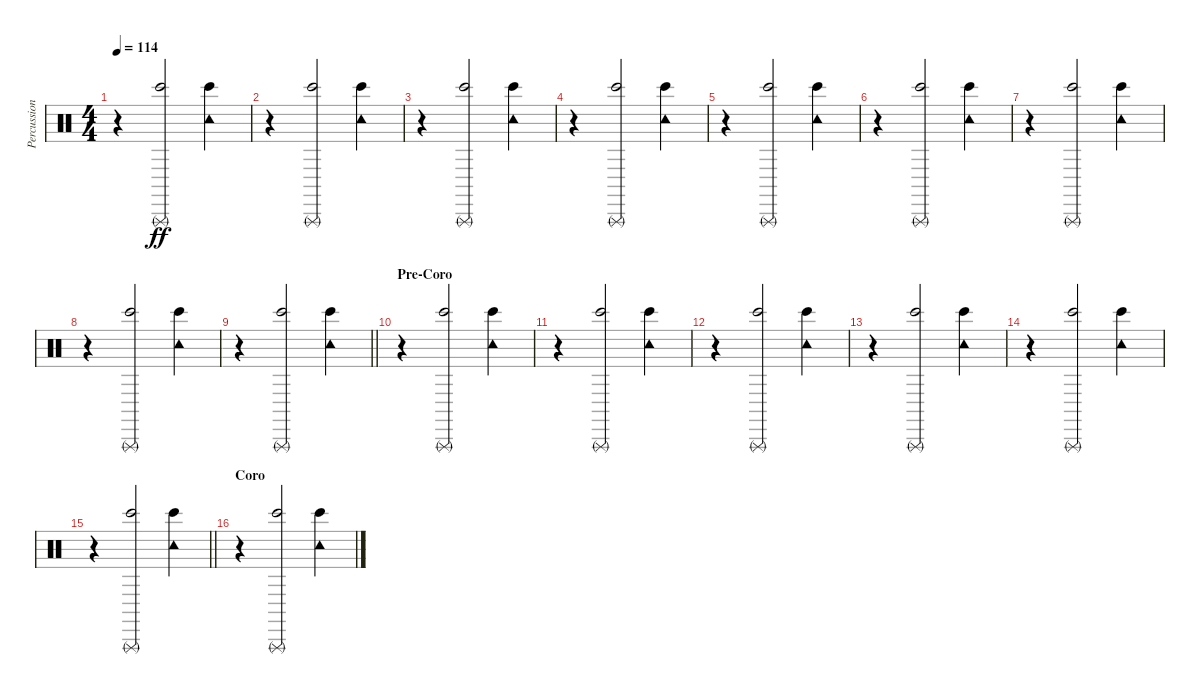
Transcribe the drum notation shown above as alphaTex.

\track ("Percussion" "Percussion") {instrument percussion}
\staff {score}
\articulation defaults
\ts (4 4)
\tempo 114
\clef neutral
\ks c
r.4{dy ff} ("Triangle (rnute)" "Bongo High (hit)").2 ("Tambourine (hit)" "Bongo High (hit)").4 |
r.4 ("Triangle (rnute)" "Bongo High (hit)").2 ("Tambourine (hit)" "Bongo High (hit)").4 |
r.4 ("Triangle (rnute)" "Bongo High (hit)").2 ("Tambourine (hit)" "Bongo High (hit)").4 |
r.4 ("Triangle (rnute)" "Bongo High (hit)").2 ("Tambourine (hit)" "Bongo High (hit)").4 |
r.4 ("Triangle (rnute)" "Bongo High (hit)").2 ("Tambourine (hit)" "Bongo High (hit)").4 |
r.4 ("Triangle (rnute)" "Bongo High (hit)").2 ("Tambourine (hit)" "Bongo High (hit)").4 |
r.4 ("Triangle (rnute)" "Bongo High (hit)").2 ("Tambourine (hit)" "Bongo High (hit)").4 |
r.4 ("Triangle (rnute)" "Bongo High (hit)").2 ("Tambourine (hit)" "Bongo High (hit)").4 |
\barLineRight lightlight
r.4 ("Triangle (rnute)" "Bongo High (hit)").2 ("Tambourine (hit)" "Bongo High (hit)").4 |
\section ("" "Pre-Coro")
r.4 ("Triangle (rnute)" "Bongo High (hit)").2 ("Tambourine (hit)" "Bongo High (hit)").4 |
r.4 ("Triangle (rnute)" "Bongo High (hit)").2 ("Tambourine (hit)" "Bongo High (hit)").4 |
r.4 ("Triangle (rnute)" "Bongo High (hit)").2 ("Tambourine (hit)" "Bongo High (hit)").4 |
r.4 ("Triangle (rnute)" "Bongo High (hit)").2 ("Tambourine (hit)" "Bongo High (hit)").4 |
r.4 ("Triangle (rnute)" "Bongo High (hit)").2 ("Tambourine (hit)" "Bongo High (hit)").4 |
\barLineRight lightlight
r.4 ("Triangle (rnute)" "Bongo High (hit)").2 ("Tambourine (hit)" "Bongo High (hit)").4 |
\section ("" "Coro")
r.4 ("Triangle (rnute)" "Bongo High (hit)").2 ("Tambourine (hit)" "Bongo High (hit)").4
